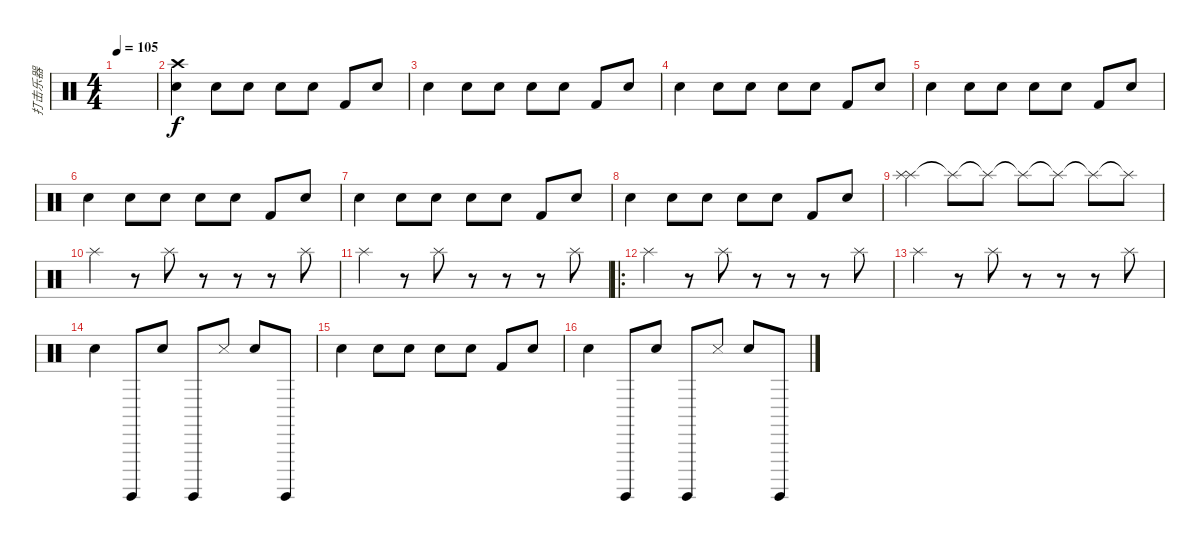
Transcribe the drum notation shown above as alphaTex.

\track ("打击乐器" "打击乐器") {instrument percussion}
\staff {score}
\articulation defaults
\ts (4 4)
\tempo 105
\clef neutral
\ks c
|
("Snare (hit) 2" "Crash high (hit)").4 "Snare (hit) 2".8 "Electric Snare (hit)".8 "Hand Clap (hit)".8 "Snare (hit) 2".8 "Kick (hit) 2".8 "Snare (hit) 2".8 |
"Snare (hit) 2".4 "Snare (hit) 2".8 "Electric Snare (hit)".8 "Hand Clap (hit)".8 "Snare (hit) 2".8 "Kick (hit) 2".8 "Snare (hit) 2".8 |
"Snare (hit) 2".4 "Snare (hit) 2".8 "Electric Snare (hit)".8 "Hand Clap (hit)".8 "Snare (hit) 2".8 "Kick (hit) 2".8 "Snare (hit) 2".8 |
"Snare (hit) 2".4 "Snare (hit) 2".8 "Electric Snare (hit)".8 "Hand Clap (hit)".8 "Snare (hit) 2".8 "Kick (hit) 2".8 "Snare (hit) 2".8 |
"Snare (hit) 2".4 "Snare (hit) 2".8 "Electric Snare (hit)".8 "Hand Clap (hit)".8 "Snare (hit) 2".8 "Kick (hit) 2".8 "Snare (hit) 2".8 |
"Snare (hit) 2".4 "Snare (hit) 2".8 "Electric Snare (hit)".8 "Hand Clap (hit)".8 "Snare (hit) 2".8 "Kick (hit) 2".8 "Snare (hit) 2".8 |
"Snare (hit) 2".4 "Snare (hit) 2".8 "Electric Snare (hit)".8 "Hand Clap (hit)".8 "Snare (hit) 2".8 "Kick (hit) 2".8 "Snare (hit) 2".8 |
("Splash (hit)" "Splash (hit)"{tr (55 16)}).4 "Splash (hit)"{t}.8 "Splash (hit)"{t}.8 "Splash (hit)"{t}.8 "Splash (hit)"{t}.8 "Splash (hit)"{t}.8 "Splash (hit)"{t}.8 |
"Splash (hit)".4 r.8 "Splash (hit)".8 r.8 r.8 r.8 "Splash (hit)".8 |
"Splash (hit)".4 r.8 "Splash (hit)".8 r.8 r.8 r.8 "Splash (hit)".8 |
\ro "Splash (hit)".4
r.8 "Splash (hit)".8 r.8 r.8 r.8 "Splash (hit)".8 |
"Splash (hit)".4 r.8 "Splash (hit)".8 r.8 r.8 r.8 "Splash (hit)".8 |
"Snare (hit) 2".4 "Surdo (hit)".8 "Snare (hit) 2".8 "Surdo (hit)".8 "Snare (side stick) 3".8 "Snare (hit) 2".8 "Surdo (hit)".8 |
"Snare (hit) 2".4 "Snare (hit) 2".8 "Electric Snare (hit)".8 "Hand Clap (hit)".8 "Snare (hit) 2".8 "Kick (hit) 2".8 "Snare (hit) 2".8 |
"Snare (hit) 2".4 "Surdo (hit)".8 "Snare (hit) 2".8 "Surdo (hit)".8 "Snare (side stick) 3".8 "Snare (hit) 2".8 "Surdo (hit)".8
